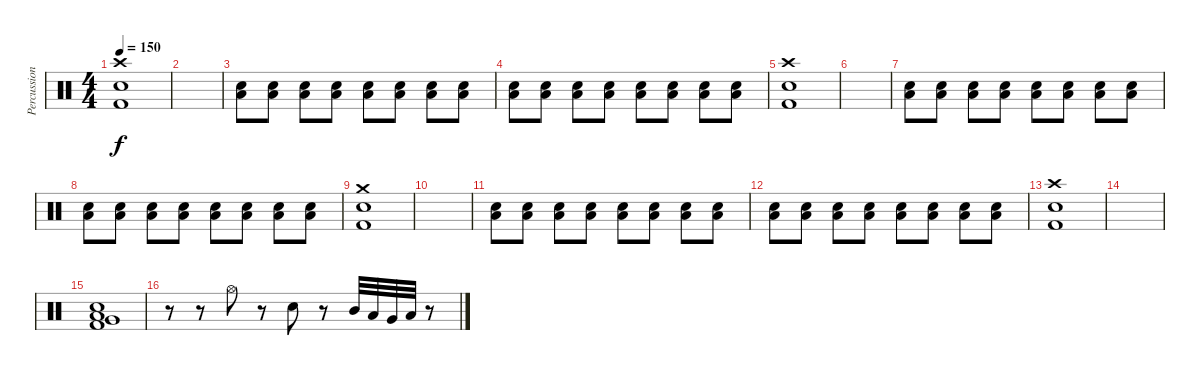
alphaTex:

\track ("Percussion" "Percussion") {instrument percussion}
\staff {score}
\articulation defaults
\ts (4 4)
\tempo 150
\clef neutral
\ks c
("Crash high (hit)" "Snare (hit) 2" "Kick (hit) 2").1{dy f} |
|
("Snare (hit) 2" "Low Floor Tom (hit)").8{volume 14} ("Snare (hit) 2" "Low Floor Tom (hit)").8 ("Snare (hit) 2" "Low Floor Tom (hit)").8 ("Snare (hit) 2" "Low Floor Tom (hit)").8 ("Snare (hit) 2" "Low Floor Tom (hit)").8 ("Snare (hit) 2" "Low Floor Tom (hit)").8 ("Snare (hit) 2" "Low Floor Tom (hit)").8 ("Snare (hit) 2" "Low Floor Tom (hit)").8 |
("Snare (hit) 2" "Low Floor Tom (hit)").8 ("Snare (hit) 2" "Low Floor Tom (hit)").8 ("Snare (hit) 2" "Low Floor Tom (hit)").8 ("Snare (hit) 2" "Low Floor Tom (hit)").8 ("Snare (hit) 2" "Low Floor Tom (hit)").8 ("Snare (hit) 2" "Low Floor Tom (hit)").8 ("Snare (hit) 2" "Low Floor Tom (hit)").8 ("Snare (hit) 2" "Low Floor Tom (hit)").8 |
("Crash high (hit)" "Snare (hit) 2" "Kick (hit) 2").1 |
|
("Snare (hit) 2" "Low Floor Tom (hit)").8{volume 14} ("Snare (hit) 2" "Low Floor Tom (hit)").8 ("Snare (hit) 2" "Low Floor Tom (hit)").8 ("Snare (hit) 2" "Low Floor Tom (hit)").8 ("Snare (hit) 2" "Low Floor Tom (hit)").8 ("Snare (hit) 2" "Low Floor Tom (hit)").8 ("Snare (hit) 2" "Low Floor Tom (hit)").8 ("Snare (hit) 2" "Low Floor Tom (hit)").8 |
("Snare (hit) 2" "Low Floor Tom (hit)").8 ("Snare (hit) 2" "Low Floor Tom (hit)").8 ("Snare (hit) 2" "Low Floor Tom (hit)").8 ("Snare (hit) 2" "Low Floor Tom (hit)").8 ("Snare (hit) 2" "Low Floor Tom (hit)").8 ("Snare (hit) 2" "Low Floor Tom (hit)").8 ("Snare (hit) 2" "Low Floor Tom (hit)").8 ("Snare (hit) 2" "Low Floor Tom (hit)").8 |
("Crash medium (hit)" "Snare (hit) 2" "Kick (hit) 2").1 |
|
("Snare (hit) 2" "Low Floor Tom (hit)").8{volume 14} ("Snare (hit) 2" "Low Floor Tom (hit)").8 ("Snare (hit) 2" "Low Floor Tom (hit)").8 ("Snare (hit) 2" "Low Floor Tom (hit)").8 ("Snare (hit) 2" "Low Floor Tom (hit)").8 ("Snare (hit) 2" "Low Floor Tom (hit)").8 ("Snare (hit) 2" "Low Floor Tom (hit)").8 ("Snare (hit) 2" "Low Floor Tom (hit)").8 |
("Snare (hit) 2" "Low Floor Tom (hit)").8 ("Snare (hit) 2" "Low Floor Tom (hit)").8 ("Snare (hit) 2" "Low Floor Tom (hit)").8 ("Snare (hit) 2" "Low Floor Tom (hit)").8 ("Snare (hit) 2" "Low Floor Tom (hit)").8 ("Snare (hit) 2" "Low Floor Tom (hit)").8 ("Snare (hit) 2" "Low Floor Tom (hit)").8 ("Snare (hit) 2" "Low Floor Tom (hit)").8 |
("Crash high (hit)" "Snare (hit) 2" "Kick (hit) 2").1 |
|
("Very Low Tom (hit)" "Low Floor Tom (hit)" "Snare (hit) 2" "Kick (hit) 2").1 |
r.8 r.8 "Hi-Hat (open)".8 r.8 "Snare (hit) 2".8 r.8 "Mid Tom (hit)".32 "Low Tom (hit)".32 "Very Low Tom (hit)".32 "Low Floor Tom (hit)".32 r.8
